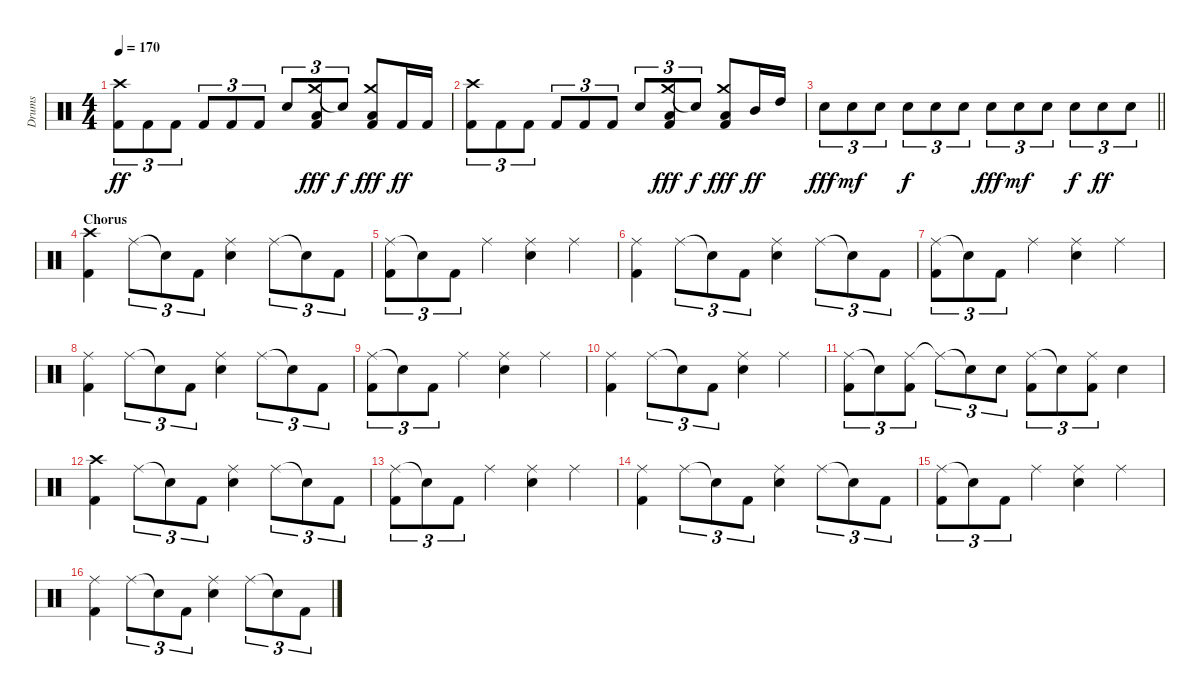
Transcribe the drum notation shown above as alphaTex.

\track ("Drums" "Drums") {instrument percussion}
\staff {score}
\articulation defaults
\ts (4 4)
\tempo 170
\clef neutral
\ks c
("Crash high (hit)" "Kick (hit) 2").8{tu (3 2) dy ff} "Kick (hit) 2".8{tu (3 2)} "Kick (hit) 2".8{tu (3 2)} "Kick (hit) 2".8{tu (3 2)} "Kick (hit) 2".8{tu (3 2)} "Kick (hit) 2".8{tu (3 2)} "Snare (hit) 2".8{tu (3 2)} ("Crash medium (hit)" "Low Floor Tom (hit)" "Kick (hit) 2").8{tu (3 2) dy fff} "Snare (hit)"{t}.8{tu (3 2) dy f} ("Crash medium (hit)" "Low Floor Tom (hit)" "Kick (hit) 2").8{dy fff} "Kick (hit) 2".16{dy ff} "Kick (hit) 2".16 |
("Crash high (hit)" "Kick (hit) 2").8{tu (3 2)} "Kick (hit) 2".8{tu (3 2)} "Kick (hit) 2".8{tu (3 2)} "Kick (hit) 2".8{tu (3 2)} "Kick (hit) 2".8{tu (3 2)} "Kick (hit) 2".8{tu (3 2)} "Snare (hit) 2".8{tu (3 2)} ("Crash medium (hit)" "Low Floor Tom (hit)" "Kick (hit) 2").8{tu (3 2) dy fff} "Snare (hit)"{t}.8{tu (3 2) dy f} ("Crash medium (hit)" "Low Floor Tom (hit)" "Kick (hit) 2").8{dy fff} "Mid Tom (hit)".16{dy ff} "High Tom (hit)".16 |
\barLineRight lightlight "Snare (hit) 2".8{tu (3 2) dy fff} "Snare (hit) 2".8{tu (3 2) dy mf} "Snare (hit) 2".8{tu (3 2)} "Snare (hit) 2".8{tu (3 2) dy f} "Snare (hit) 2".8{tu (3 2)} "Snare (hit) 2".8{tu (3 2)} "Snare (hit) 2".8{tu (3 2) dy fff} "Snare (hit) 2".8{tu (3 2) dy mf} "Snare (hit) 2".8{tu (3 2)} "Snare (hit) 2".8{tu (3 2) dy f} "Snare (hit) 2".8{tu (3 2) dy ff} "Snare (hit) 2".8{tu (3 2)}
|
\section ("" "Chorus")
("Crash high (hit)" "Kick (hit) 2").4 "Ride (middle)".8{tu (3 2)} "Snare (hit)"{t}.8{tu (3 2)} "Kick (hit) 2".8{tu (3 2)} ("Ride (middle)" "Snare (hit) 2").4 "Ride (middle)".8{tu (3 2)} "Snare (hit)"{t}.8{tu (3 2)} "Kick (hit) 2".8{tu (3 2)} |
("Ride (middle)" "Kick (hit) 2").8{tu (3 2)} "Snare (hit)"{t}.8{tu (3 2)} "Kick (hit) 2".8{tu (3 2)} "Ride (middle)".4 ("Ride (middle)" "Snare (hit) 2").4 "Ride (middle)".4 |
("Ride (middle)" "Kick (hit) 2").4 "Ride (middle)".8{tu (3 2)} "Snare (hit)"{t}.8{tu (3 2)} "Kick (hit) 2".8{tu (3 2)} ("Ride (middle)" "Snare (hit) 2").4 "Ride (middle)".8{tu (3 2)} "Snare (hit)"{t}.8{tu (3 2)} "Kick (hit) 2".8{tu (3 2)} |
("Ride (middle)" "Kick (hit) 2").8{tu (3 2)} "Snare (hit)"{t}.8{tu (3 2)} "Kick (hit) 2".8{tu (3 2)} "Ride (middle)".4 ("Ride (middle)" "Snare (hit) 2").4 "Ride (middle)".4 |
("Ride (middle)" "Kick (hit) 2").4 "Ride (middle)".8{tu (3 2)} "Snare (hit)"{t}.8{tu (3 2)} "Kick (hit) 2".8{tu (3 2)} ("Ride (middle)" "Snare (hit) 2").4 "Ride (middle)".8{tu (3 2)} "Snare (hit)"{t}.8{tu (3 2)} "Kick (hit) 2".8{tu (3 2)} |
("Ride (middle)" "Kick (hit) 2").8{tu (3 2)} "Snare (hit)"{t}.8{tu (3 2)} "Kick (hit) 2".8{tu (3 2)} "Ride (middle)".4 ("Ride (middle)" "Snare (hit) 2").4 "Ride (middle)".4 |
("Ride (middle)" "Kick (hit) 2").4 "Ride (middle)".8{tu (3 2)} "Snare (hit)"{t}.8{tu (3 2)} "Kick (hit) 2".8{tu (3 2)} ("Ride (middle)" "Snare (hit) 2").4 "Ride (middle)".4 |
("Ride (middle)" "Kick (hit) 2").8{tu (3 2)} "Snare (hit)"{t}.8{tu (3 2)} ("Ride (middle)" "Kick (hit) 2").8{tu (3 2)} "Ride (middle)"{t}.8{tu (3 2)} "Snare (hit)"{t}.8{tu (3 2)} "Snare (hit) 2".8{tu (3 2)} ("Ride (middle)" "Kick (hit) 2").8{tu (3 2)} "Snare (hit)"{t}.8{tu (3 2)} ("Ride (middle)" "Kick (hit) 2").8{tu (3 2)} "Snare (hit) 2".4 |
("Crash high (hit)" "Kick (hit) 2").4 "Ride (middle)".8{tu (3 2)} "Snare (hit)"{t}.8{tu (3 2)} "Kick (hit) 2".8{tu (3 2)} ("Ride (middle)" "Snare (hit) 2").4 "Ride (middle)".8{tu (3 2)} "Snare (hit)"{t}.8{tu (3 2)} "Kick (hit) 2".8{tu (3 2)} |
("Ride (middle)" "Kick (hit) 2").8{tu (3 2)} "Snare (hit)"{t}.8{tu (3 2)} "Kick (hit) 2".8{tu (3 2)} "Ride (middle)".4 ("Ride (middle)" "Snare (hit) 2").4 "Ride (middle)".4 |
("Ride (middle)" "Kick (hit) 2").4 "Ride (middle)".8{tu (3 2)} "Snare (hit)"{t}.8{tu (3 2)} "Kick (hit) 2".8{tu (3 2)} ("Ride (middle)" "Snare (hit) 2").4 "Ride (middle)".8{tu (3 2)} "Snare (hit)"{t}.8{tu (3 2)} "Kick (hit) 2".8{tu (3 2)} |
("Ride (middle)" "Kick (hit) 2").8{tu (3 2)} "Snare (hit)"{t}.8{tu (3 2)} "Kick (hit) 2".8{tu (3 2)} "Ride (middle)".4 ("Ride (middle)" "Snare (hit) 2").4 "Ride (middle)".4 |
("Ride (middle)" "Kick (hit) 2").4 "Ride (middle)".8{tu (3 2)} "Snare (hit)"{t}.8{tu (3 2)} "Kick (hit) 2".8{tu (3 2)} ("Ride (middle)" "Snare (hit) 2").4 "Ride (middle)".8{tu (3 2)} "Snare (hit)"{t}.8{tu (3 2)} "Kick (hit) 2".8{tu (3 2)}
